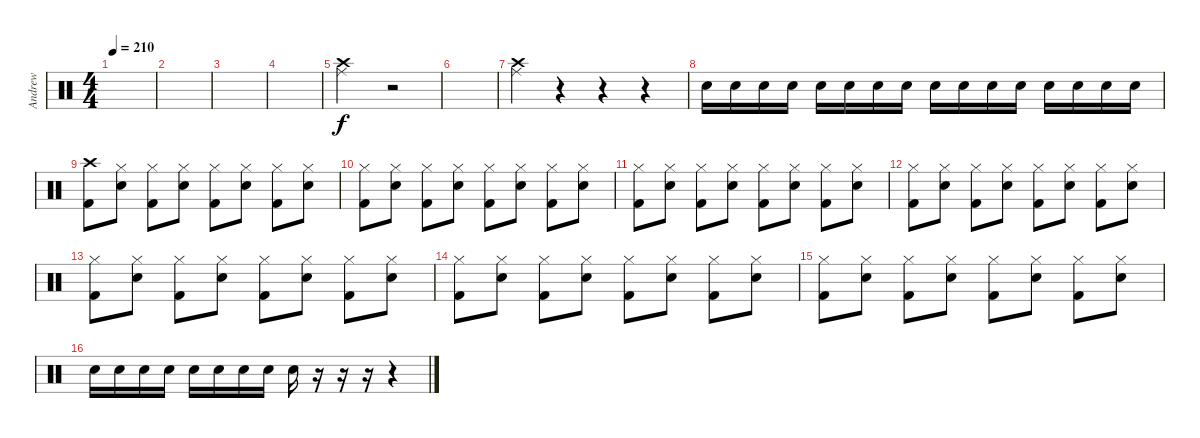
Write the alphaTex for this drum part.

\track ("Andrew" "Andrew") {instrument percussion}
\staff {score}
\articulation defaults
\ts (4 4)
\tempo 210
\clef neutral
\ks c
|
|
|
|
("Ride (middle)" "Crash high (hit)").2 r.2 |
|
("Ride (middle)" "Crash high (hit)").4 r.4 r.4 r.4 |
"Snare (hit) 2".16 "Snare (hit) 2".16 "Snare (hit) 2".16 "Snare (hit) 2".16 "Snare (hit) 2".16 "Snare (hit) 2".16 "Snare (hit) 2".16 "Snare (hit) 2".16 "Snare (hit) 2".16 "Snare (hit) 2".16 "Snare (hit) 2".16 "Snare (hit) 2".16 "Snare (hit) 2".16 "Snare (hit) 2".16 "Snare (hit) 2".16 "Snare (hit) 2".16 |
("Kick (hit) 2" "Crash high (hit)").8 ("Hi-Hat (closed)" "Snare (hit) 2").8 ("Hi-Hat (closed)" "Kick (hit) 2").8 ("Hi-Hat (closed)" "Snare (hit) 2").8 ("Hi-Hat (closed)" "Kick (hit) 2").8 ("Hi-Hat (closed)" "Snare (hit) 2").8 ("Hi-Hat (closed)" "Kick (hit) 2").8 ("Hi-Hat (closed)" "Snare (hit) 2").8 |
("Hi-Hat (closed)" "Kick (hit) 2").8 ("Hi-Hat (closed)" "Snare (hit) 2").8 ("Hi-Hat (closed)" "Kick (hit) 2").8 ("Hi-Hat (closed)" "Snare (hit) 2").8 ("Hi-Hat (closed)" "Kick (hit) 2").8 ("Hi-Hat (closed)" "Snare (hit) 2").8 ("Hi-Hat (closed)" "Kick (hit) 2").8 ("Hi-Hat (closed)" "Snare (hit) 2").8 |
("Hi-Hat (closed)" "Kick (hit) 2").8 ("Hi-Hat (closed)" "Snare (hit) 2").8 ("Hi-Hat (closed)" "Kick (hit) 2").8 ("Hi-Hat (closed)" "Snare (hit) 2").8 ("Hi-Hat (closed)" "Kick (hit) 2").8 ("Hi-Hat (closed)" "Snare (hit) 2").8 ("Hi-Hat (closed)" "Kick (hit) 2").8 ("Hi-Hat (closed)" "Snare (hit) 2").8 |
("Hi-Hat (closed)" "Kick (hit) 2").8 ("Hi-Hat (closed)" "Snare (hit) 2").8 ("Hi-Hat (closed)" "Kick (hit) 2").8 ("Hi-Hat (closed)" "Snare (hit) 2").8 ("Hi-Hat (closed)" "Kick (hit) 2").8 ("Hi-Hat (closed)" "Snare (hit) 2").8 ("Hi-Hat (closed)" "Kick (hit) 2").8 ("Hi-Hat (closed)" "Snare (hit) 2").8 |
("Hi-Hat (closed)" "Kick (hit) 2").8 ("Hi-Hat (closed)" "Snare (hit) 2").8 ("Hi-Hat (closed)" "Kick (hit) 2").8 ("Hi-Hat (closed)" "Snare (hit) 2").8 ("Hi-Hat (closed)" "Kick (hit) 2").8 ("Hi-Hat (closed)" "Snare (hit) 2").8 ("Hi-Hat (closed)" "Kick (hit) 2").8 ("Hi-Hat (closed)" "Snare (hit) 2").8 |
("Hi-Hat (closed)" "Kick (hit) 2").8 ("Hi-Hat (closed)" "Snare (hit) 2").8 ("Hi-Hat (closed)" "Kick (hit) 2").8 ("Hi-Hat (closed)" "Snare (hit) 2").8 ("Hi-Hat (closed)" "Kick (hit) 2").8 ("Hi-Hat (closed)" "Snare (hit) 2").8 ("Hi-Hat (closed)" "Kick (hit) 2").8 ("Hi-Hat (closed)" "Snare (hit) 2").8 |
("Hi-Hat (closed)" "Kick (hit) 2").8 ("Hi-Hat (closed)" "Snare (hit) 2").8 ("Hi-Hat (closed)" "Kick (hit) 2").8 ("Hi-Hat (closed)" "Snare (hit) 2").8 ("Hi-Hat (closed)" "Kick (hit) 2").8 ("Hi-Hat (closed)" "Snare (hit) 2").8 ("Hi-Hat (closed)" "Kick (hit) 2").8 ("Hi-Hat (closed)" "Snare (hit) 2").8 |
"Snare (hit) 2".16 "Snare (hit) 2".16 "Snare (hit) 2".16 "Snare (hit) 2".16 "Snare (hit) 2".16 "Snare (hit) 2".16 "Snare (hit) 2".16 "Snare (hit) 2".16 "Snare (hit) 2".16 r.16 r.16 r.16 r.4
